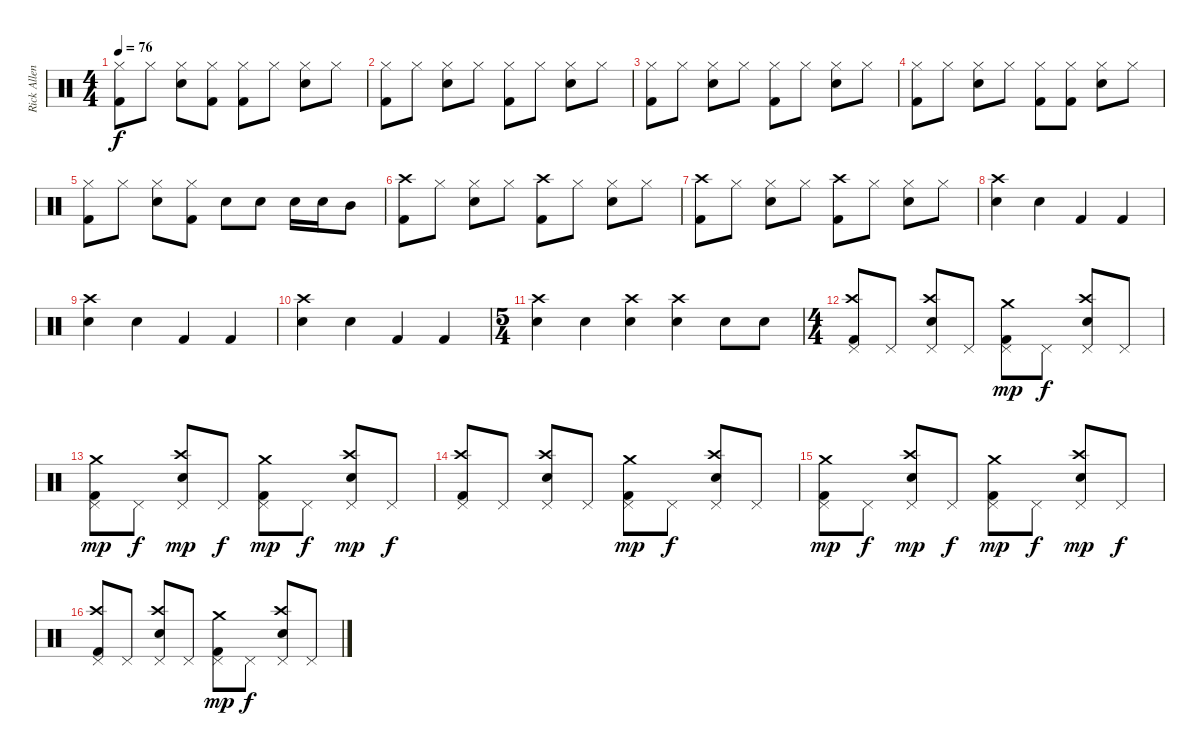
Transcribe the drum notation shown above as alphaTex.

\track ("Rick Allen" "Rick Allen") {instrument percussion}
\staff {score}
\articulation defaults
\ts (4 4)
\tempo 76
\clef neutral
\ks c
("Hi-Hat (closed)" "Kick (hit) 2").8{dy f} "Hi-Hat (closed)".8 ("Hi-Hat (closed)" "Snare (hit) 2").8 ("Hi-Hat (closed)" "Kick (hit) 2").8 ("Hi-Hat (closed)" "Kick (hit) 2").8 "Hi-Hat (closed)".8 ("Hi-Hat (closed)" "Snare (hit) 2").8 "Hi-Hat (closed)".8 |
("Hi-Hat (closed)" "Kick (hit) 2").8 "Hi-Hat (closed)".8 ("Hi-Hat (closed)" "Snare (hit) 2").8 "Hi-Hat (closed)".8 ("Hi-Hat (closed)" "Kick (hit) 2").8 "Hi-Hat (closed)".8 ("Hi-Hat (closed)" "Snare (hit) 2").8 "Hi-Hat (closed)".8 |
("Hi-Hat (closed)" "Kick (hit) 2").8 "Hi-Hat (closed)".8 ("Hi-Hat (closed)" "Snare (hit) 2").8 "Hi-Hat (closed)".8 ("Hi-Hat (closed)" "Kick (hit) 2").8 "Hi-Hat (closed)".8 ("Hi-Hat (closed)" "Snare (hit) 2").8 "Hi-Hat (closed)".8 |
("Hi-Hat (closed)" "Kick (hit) 2").8 "Hi-Hat (closed)".8 ("Hi-Hat (closed)" "Snare (hit) 2").8 "Hi-Hat (closed)".8 ("Hi-Hat (closed)" "Kick (hit) 2").8 ("Hi-Hat (closed)" "Kick (hit) 2").8 ("Hi-Hat (closed)" "Snare (hit) 2").8 "Hi-Hat (closed)".8 |
("Hi-Hat (closed)" "Kick (hit) 2").8 "Hi-Hat (closed)".8 ("Hi-Hat (closed)" "Snare (hit) 2").8 ("Hi-Hat (closed)" "Kick (hit) 2").8 "Snare (hit) 2".8 "Snare (hit) 2".8 "Snare (hit) 2".16 "Snare (hit) 2".16 "Mid Tom (hit)".8 |
("Crash high (hit)" "Kick (hit) 2").8 "Hi-Hat (closed)".8 ("Hi-Hat (closed)" "Snare (hit) 2").8 "Hi-Hat (closed)".8 ("Crash high (hit)" "Kick (hit) 2").8 "Hi-Hat (closed)".8 ("Hi-Hat (closed)" "Snare (hit) 2").8 "Hi-Hat (closed)".8 |
("Crash high (hit)" "Kick (hit) 2").8 "Hi-Hat (closed)".8 ("Hi-Hat (closed)" "Snare (hit) 2").8 "Hi-Hat (closed)".8 ("Crash high (hit)" "Kick (hit) 2").8 "Hi-Hat (closed)".8 ("Hi-Hat (closed)" "Snare (hit) 2").8 "Hi-Hat (closed)".8 |
("Crash high (hit)" "Snare (hit) 2").4 "Snare (hit) 2".4 "Kick (hit) 2".4 "Kick (hit) 2".4 |
("Crash high (hit)" "Snare (hit) 2").4 "Snare (hit) 2".4 "Kick (hit) 2".4 "Kick (hit) 2".4 |
("Crash high (hit)" "Snare (hit) 2").4 "Snare (hit) 2".4 "Kick (hit) 2".4 "Kick (hit) 2".4 |
\ts (5 4)
("Crash high (hit)" "Snare (hit) 2").4 "Snare (hit) 2".4 ("Crash high (hit)" "Snare (hit) 2").4 ("Crash high (hit)" "Snare (hit) 2").4 "Snare (hit) 2".8 "Snare (hit) 2".8 |
\ts (4 4)
("Crash high (hit)" "Pedal Hi-Hat (hit)" "Kick (hit) 2").8 "Pedal Hi-Hat (hit)".8 ("Crash high (hit)" "Pedal Hi-Hat (hit)" "Snare (hit) 2").8 "Pedal Hi-Hat (hit)".8 ("Crash medium (hit)" "Pedal Hi-Hat (hit)" "Kick (hit) 2").8{dy mp} "Pedal Hi-Hat (hit)".8{dy f} ("Crash high (hit)" "Pedal Hi-Hat (hit)" "Snare (hit) 2").8 "Pedal Hi-Hat (hit)".8 |
("Crash medium (hit)" "Pedal Hi-Hat (hit)" "Kick (hit) 2").8{dy mp} "Pedal Hi-Hat (hit)".8{dy f} ("Crash high (hit)" "Pedal Hi-Hat (hit)" "Snare (hit) 2").8{dy mp} "Pedal Hi-Hat (hit)".8{dy f} ("Crash medium (hit)" "Pedal Hi-Hat (hit)" "Kick (hit) 2").8{dy mp} "Pedal Hi-Hat (hit)".8{dy f} ("Crash high (hit)" "Pedal Hi-Hat (hit)" "Snare (hit) 2").8{dy mp} "Pedal Hi-Hat (hit)".8{dy f} |
("Crash high (hit)" "Pedal Hi-Hat (hit)" "Kick (hit) 2").8 "Pedal Hi-Hat (hit)".8 ("Crash high (hit)" "Pedal Hi-Hat (hit)" "Snare (hit) 2").8 "Pedal Hi-Hat (hit)".8 ("Crash medium (hit)" "Pedal Hi-Hat (hit)" "Kick (hit) 2").8{dy mp} "Pedal Hi-Hat (hit)".8{dy f} ("Crash high (hit)" "Pedal Hi-Hat (hit)" "Snare (hit) 2").8 "Pedal Hi-Hat (hit)".8 |
("Crash medium (hit)" "Pedal Hi-Hat (hit)" "Kick (hit) 2").8{dy mp} "Pedal Hi-Hat (hit)".8{dy f} ("Crash high (hit)" "Pedal Hi-Hat (hit)" "Snare (hit) 2").8{dy mp} "Pedal Hi-Hat (hit)".8{dy f} ("Crash medium (hit)" "Pedal Hi-Hat (hit)" "Kick (hit) 2").8{dy mp} "Pedal Hi-Hat (hit)".8{dy f} ("Crash high (hit)" "Pedal Hi-Hat (hit)" "Snare (hit) 2").8{dy mp} "Pedal Hi-Hat (hit)".8{dy f} |
("Crash high (hit)" "Pedal Hi-Hat (hit)" "Kick (hit) 2").8 "Pedal Hi-Hat (hit)".8 ("Crash high (hit)" "Pedal Hi-Hat (hit)" "Snare (hit) 2").8 "Pedal Hi-Hat (hit)".8 ("Crash medium (hit)" "Pedal Hi-Hat (hit)" "Kick (hit) 2").8{dy mp} "Pedal Hi-Hat (hit)".8{dy f} ("Crash high (hit)" "Pedal Hi-Hat (hit)" "Snare (hit) 2").8 "Pedal Hi-Hat (hit)".8
